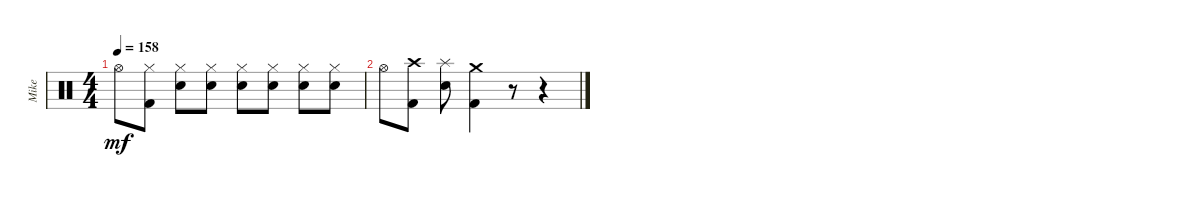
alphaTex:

\track ("Mike" "Mike") {instrument percussion}
\staff {score}
\articulation defaults
\ts (4 4)
\tempo 158
\clef neutral
\ks c "Hi-Hat (open)".8{dy mf}
("Hi-Hat (closed)" "Kick (hit) 2").8 ("Hi-Hat (closed)" "Electric Snare (hit)").8 ("Hi-Hat (closed)" "Electric Snare (hit)").8 ("Hi-Hat (closed)" "Electric Snare (hit)").8 ("Hi-Hat (closed)" "Electric Snare (hit)").8 ("Hi-Hat (closed)" "Electric Snare (hit)").8 ("Hi-Hat (closed)" "Electric Snare (hit)").8 |
"Hi-Hat (open)".8 ("Crash high (hit)" "Kick (hit) 2").8 ("Splash (hit)" "Electric Snare (hit)").8 ("Crash medium (hit)" "Kick (hit) 2").4 r.8 r.4
